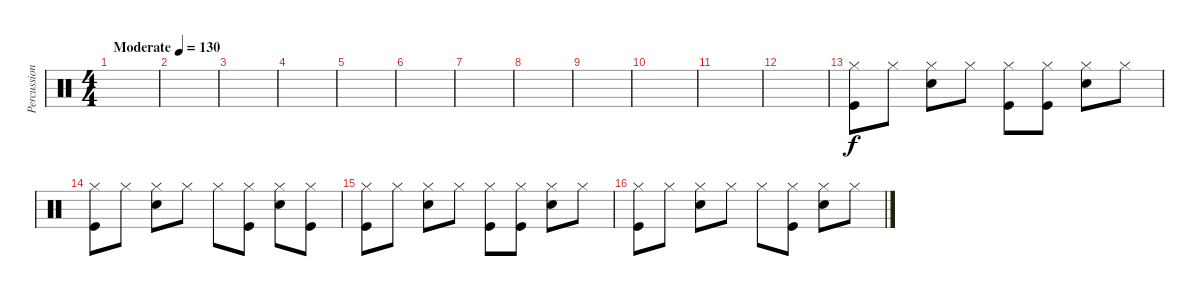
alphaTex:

\track ("Percussion" "Percussion") {instrument percussion}
\staff {score}
\articulation defaults
\ts (4 4)
\tempo (130 "Moderate")
\clef neutral
\ks c
|
|
|
|
|
|
|
|
|
|
|
|
("Hi-Hat (closed)" "Kick (hit)").8 "Hi-Hat (closed)".8 ("Hi-Hat (closed)" "Electric Snare (hit)").8 "Hi-Hat (closed)".8 ("Hi-Hat (closed)" "Kick (hit)").8 ("Hi-Hat (closed)" "Kick (hit)").8 ("Hi-Hat (closed)" "Electric Snare (hit)").8 "Hi-Hat (closed)".8 |
("Hi-Hat (closed)" "Kick (hit)").8 "Hi-Hat (closed)".8 ("Hi-Hat (closed)" "Electric Snare (hit)").8 "Hi-Hat (closed)".8 "Hi-Hat (closed)".8 ("Hi-Hat (closed)" "Kick (hit)").8 ("Hi-Hat (closed)" "Electric Snare (hit)").8 ("Hi-Hat (closed)" "Kick (hit)").8 |
("Hi-Hat (closed)" "Kick (hit)").8 "Hi-Hat (closed)".8 ("Hi-Hat (closed)" "Electric Snare (hit)").8 "Hi-Hat (closed)".8 ("Hi-Hat (closed)" "Kick (hit)").8 ("Hi-Hat (closed)" "Kick (hit)").8 ("Hi-Hat (closed)" "Electric Snare (hit)").8 "Hi-Hat (closed)".8 |
("Hi-Hat (closed)" "Kick (hit)").8 "Hi-Hat (closed)".8 ("Hi-Hat (closed)" "Electric Snare (hit)").8 "Hi-Hat (closed)".8 "Hi-Hat (closed)".8 ("Hi-Hat (closed)" "Kick (hit)").8 ("Hi-Hat (closed)" "Electric Snare (hit)").8 "Hi-Hat (closed)".8
